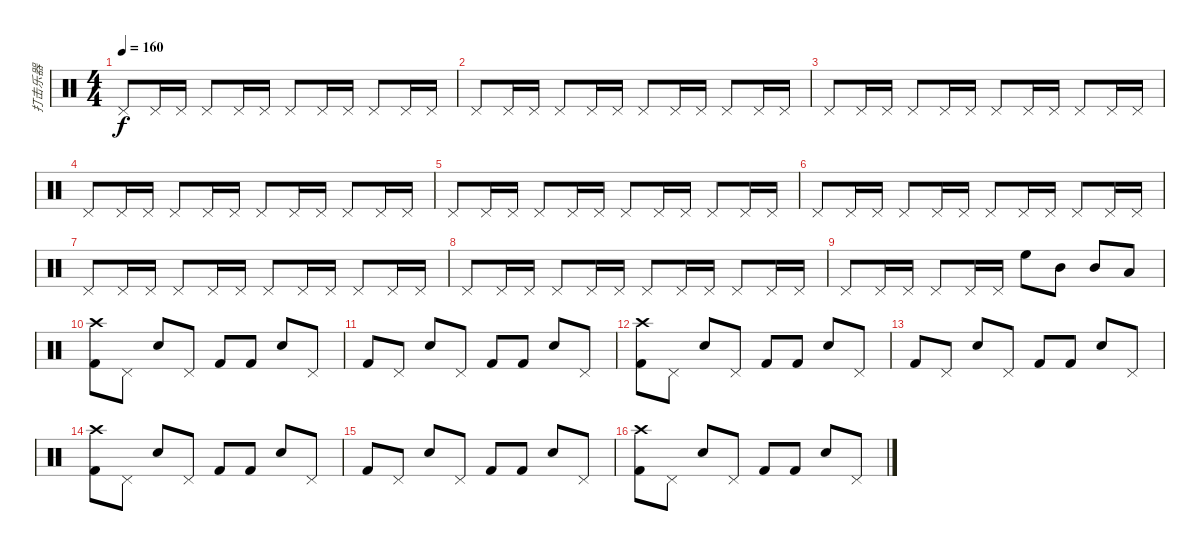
\track ("打击乐器" "打击乐器") {instrument percussion}
\staff {score}
\articulation defaults
\ts (4 4)
\tempo 160
\clef neutral
\ks c "Pedal Hi-Hat (hit)".8{dy f} "Pedal Hi-Hat (hit)".16 "Pedal Hi-Hat (hit)".16 "Pedal Hi-Hat (hit)".8 "Pedal Hi-Hat (hit)".16 "Pedal Hi-Hat (hit)".16 "Pedal Hi-Hat (hit)".8 "Pedal Hi-Hat (hit)".16 "Pedal Hi-Hat (hit)".16 "Pedal Hi-Hat (hit)".8 "Pedal Hi-Hat (hit)".16 "Pedal Hi-Hat (hit)".16
|
"Pedal Hi-Hat (hit)".8 "Pedal Hi-Hat (hit)".16 "Pedal Hi-Hat (hit)".16 "Pedal Hi-Hat (hit)".8 "Pedal Hi-Hat (hit)".16 "Pedal Hi-Hat (hit)".16 "Pedal Hi-Hat (hit)".8 "Pedal Hi-Hat (hit)".16 "Pedal Hi-Hat (hit)".16 "Pedal Hi-Hat (hit)".8 "Pedal Hi-Hat (hit)".16 "Pedal Hi-Hat (hit)".16 |
"Pedal Hi-Hat (hit)".8 "Pedal Hi-Hat (hit)".16 "Pedal Hi-Hat (hit)".16 "Pedal Hi-Hat (hit)".8 "Pedal Hi-Hat (hit)".16 "Pedal Hi-Hat (hit)".16 "Pedal Hi-Hat (hit)".8 "Pedal Hi-Hat (hit)".16 "Pedal Hi-Hat (hit)".16 "Pedal Hi-Hat (hit)".8 "Pedal Hi-Hat (hit)".16 "Pedal Hi-Hat (hit)".16 |
"Pedal Hi-Hat (hit)".8 "Pedal Hi-Hat (hit)".16 "Pedal Hi-Hat (hit)".16 "Pedal Hi-Hat (hit)".8 "Pedal Hi-Hat (hit)".16 "Pedal Hi-Hat (hit)".16 "Pedal Hi-Hat (hit)".8 "Pedal Hi-Hat (hit)".16 "Pedal Hi-Hat (hit)".16 "Pedal Hi-Hat (hit)".8 "Pedal Hi-Hat (hit)".16 "Pedal Hi-Hat (hit)".16 |
"Pedal Hi-Hat (hit)".8 "Pedal Hi-Hat (hit)".16 "Pedal Hi-Hat (hit)".16 "Pedal Hi-Hat (hit)".8 "Pedal Hi-Hat (hit)".16 "Pedal Hi-Hat (hit)".16 "Pedal Hi-Hat (hit)".8 "Pedal Hi-Hat (hit)".16 "Pedal Hi-Hat (hit)".16 "Pedal Hi-Hat (hit)".8 "Pedal Hi-Hat (hit)".16 "Pedal Hi-Hat (hit)".16 |
"Pedal Hi-Hat (hit)".8 "Pedal Hi-Hat (hit)".16 "Pedal Hi-Hat (hit)".16 "Pedal Hi-Hat (hit)".8 "Pedal Hi-Hat (hit)".16 "Pedal Hi-Hat (hit)".16 "Pedal Hi-Hat (hit)".8 "Pedal Hi-Hat (hit)".16 "Pedal Hi-Hat (hit)".16 "Pedal Hi-Hat (hit)".8 "Pedal Hi-Hat (hit)".16 "Pedal Hi-Hat (hit)".16 |
"Pedal Hi-Hat (hit)".8 "Pedal Hi-Hat (hit)".16 "Pedal Hi-Hat (hit)".16 "Pedal Hi-Hat (hit)".8 "Pedal Hi-Hat (hit)".16 "Pedal Hi-Hat (hit)".16 "Pedal Hi-Hat (hit)".8 "Pedal Hi-Hat (hit)".16 "Pedal Hi-Hat (hit)".16 "Pedal Hi-Hat (hit)".8 "Pedal Hi-Hat (hit)".16 "Pedal Hi-Hat (hit)".16 |
"Pedal Hi-Hat (hit)".8 "Pedal Hi-Hat (hit)".16 "Pedal Hi-Hat (hit)".16 "Pedal Hi-Hat (hit)".8 "Pedal Hi-Hat (hit)".16 "Pedal Hi-Hat (hit)".16 "Pedal Hi-Hat (hit)".8 "Pedal Hi-Hat (hit)".16 "Pedal Hi-Hat (hit)".16 "Pedal Hi-Hat (hit)".8 "Pedal Hi-Hat (hit)".16 "Pedal Hi-Hat (hit)".16 |
"Pedal Hi-Hat (hit)".8 "Pedal Hi-Hat (hit)".16 "Pedal Hi-Hat (hit)".16 "Pedal Hi-Hat (hit)".8 "Pedal Hi-Hat (hit)".16 "Pedal Hi-Hat (hit)".16 "High Floor Tom (hit)".8 "Mid Tom (hit)".8 "Mid Tom (hit)".8 "Low Tom (hit)".8 |
("Crash high (hit)" "Kick (hit) 2").8 "Pedal Hi-Hat (hit)".8 "Snare (hit) 2".8 "Pedal Hi-Hat (hit)".8 "Kick (hit) 2".8 "Kick (hit) 2".8 "Snare (hit) 2".8 "Pedal Hi-Hat (hit)".8 |
"Kick (hit) 2".8 "Pedal Hi-Hat (hit)".8 "Snare (hit) 2".8 "Pedal Hi-Hat (hit)".8 "Kick (hit) 2".8 "Kick (hit) 2".8 "Snare (hit) 2".8 "Pedal Hi-Hat (hit)".8 |
("Crash high (hit)" "Kick (hit) 2").8 "Pedal Hi-Hat (hit)".8 "Snare (hit) 2".8 "Pedal Hi-Hat (hit)".8 "Kick (hit) 2".8 "Kick (hit) 2".8 "Snare (hit) 2".8 "Pedal Hi-Hat (hit)".8 |
"Kick (hit) 2".8 "Pedal Hi-Hat (hit)".8 "Snare (hit) 2".8 "Pedal Hi-Hat (hit)".8 "Kick (hit) 2".8 "Kick (hit) 2".8 "Snare (hit) 2".8 "Pedal Hi-Hat (hit)".8 |
("Crash high (hit)" "Kick (hit) 2").8 "Pedal Hi-Hat (hit)".8 "Snare (hit) 2".8 "Pedal Hi-Hat (hit)".8 "Kick (hit) 2".8 "Kick (hit) 2".8 "Snare (hit) 2".8 "Pedal Hi-Hat (hit)".8 |
"Kick (hit) 2".8 "Pedal Hi-Hat (hit)".8 "Snare (hit) 2".8 "Pedal Hi-Hat (hit)".8 "Kick (hit) 2".8 "Kick (hit) 2".8 "Snare (hit) 2".8 "Pedal Hi-Hat (hit)".8 |
("Crash high (hit)" "Kick (hit) 2").8 "Pedal Hi-Hat (hit)".8 "Snare (hit) 2".8 "Pedal Hi-Hat (hit)".8 "Kick (hit) 2".8 "Kick (hit) 2".8 "Snare (hit) 2".8 "Pedal Hi-Hat (hit)".8
